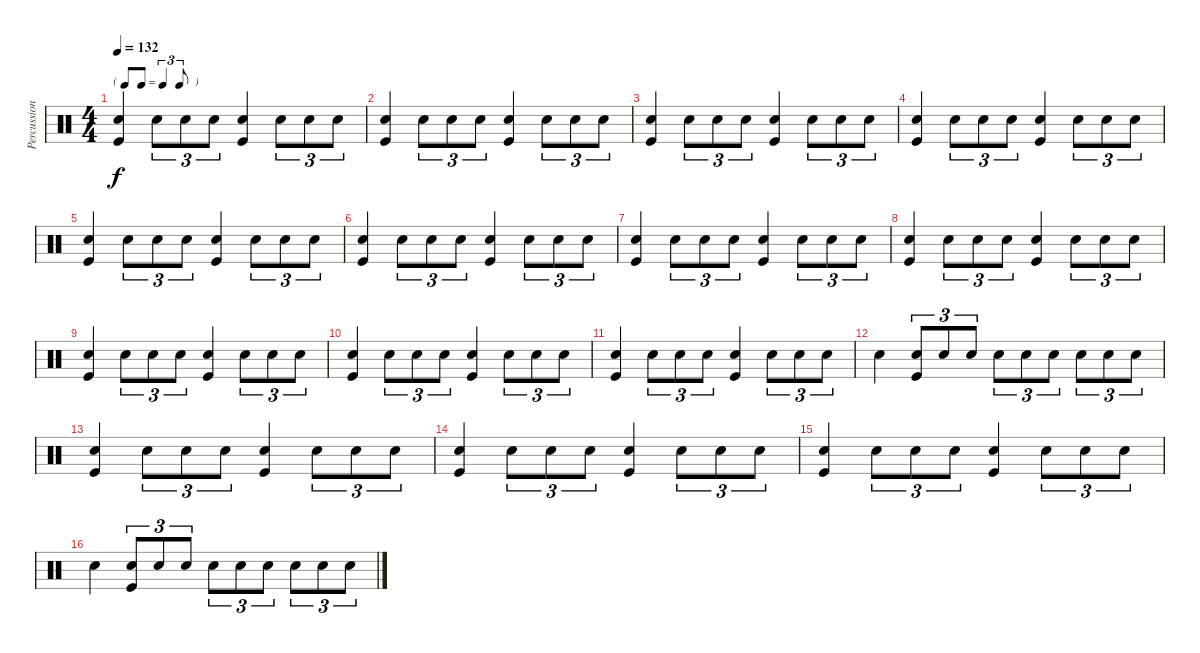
\track ("Percussions" "Percussion") {instrument percussion}
\staff {score}
\articulation defaults
\ts (4 4)
\tf triplet8th
\tempo 132
\clef neutral
\ks c
("Snare (hit) 2" "Kick (hit)").4{dy f} "Snare (hit) 2".8{tu (3 2)} "Snare (hit) 2".8{tu (3 2)} "Snare (hit) 2".8{tu (3 2)} ("Snare (hit) 2" "Kick (hit)").4 "Snare (hit) 2".8{tu (3 2)} "Snare (hit) 2".8{tu (3 2)} "Snare (hit) 2".8{tu (3 2)} |
("Snare (hit) 2" "Kick (hit)").4 "Snare (hit) 2".8{tu (3 2)} "Snare (hit) 2".8{tu (3 2)} "Snare (hit) 2".8{tu (3 2)} ("Snare (hit) 2" "Kick (hit)").4 "Snare (hit) 2".8{tu (3 2)} "Snare (hit) 2".8{tu (3 2)} "Snare (hit) 2".8{tu (3 2)} |
("Snare (hit) 2" "Kick (hit)").4 "Snare (hit) 2".8{tu (3 2)} "Snare (hit) 2".8{tu (3 2)} "Snare (hit) 2".8{tu (3 2)} ("Snare (hit) 2" "Kick (hit)").4 "Snare (hit) 2".8{tu (3 2)} "Snare (hit) 2".8{tu (3 2)} "Snare (hit) 2".8{tu (3 2)} |
("Snare (hit) 2" "Kick (hit)").4 "Snare (hit) 2".8{tu (3 2)} "Snare (hit) 2".8{tu (3 2)} "Snare (hit) 2".8{tu (3 2)} ("Snare (hit) 2" "Kick (hit)").4 "Snare (hit) 2".8{tu (3 2)} "Snare (hit) 2".8{tu (3 2)} "Snare (hit) 2".8{tu (3 2)} |
("Snare (hit) 2" "Kick (hit)").4 "Snare (hit) 2".8{tu (3 2)} "Snare (hit) 2".8{tu (3 2)} "Snare (hit) 2".8{tu (3 2)} ("Snare (hit) 2" "Kick (hit)").4 "Snare (hit) 2".8{tu (3 2)} "Snare (hit) 2".8{tu (3 2)} "Snare (hit) 2".8{tu (3 2)} |
("Snare (hit) 2" "Kick (hit)").4 "Snare (hit) 2".8{tu (3 2)} "Snare (hit) 2".8{tu (3 2)} "Snare (hit) 2".8{tu (3 2)} ("Snare (hit) 2" "Kick (hit)").4 "Snare (hit) 2".8{tu (3 2)} "Snare (hit) 2".8{tu (3 2)} "Snare (hit) 2".8{tu (3 2)} |
("Snare (hit) 2" "Kick (hit)").4 "Snare (hit) 2".8{tu (3 2)} "Snare (hit) 2".8{tu (3 2)} "Snare (hit) 2".8{tu (3 2)} ("Snare (hit) 2" "Kick (hit)").4 "Snare (hit) 2".8{tu (3 2)} "Snare (hit) 2".8{tu (3 2)} "Snare (hit) 2".8{tu (3 2)} |
("Snare (hit) 2" "Kick (hit)").4 "Snare (hit) 2".8{tu (3 2)} "Snare (hit) 2".8{tu (3 2)} "Snare (hit) 2".8{tu (3 2)} ("Snare (hit) 2" "Kick (hit)").4 "Snare (hit) 2".8{tu (3 2)} "Snare (hit) 2".8{tu (3 2)} "Snare (hit) 2".8{tu (3 2)} |
("Snare (hit) 2" "Kick (hit)").4 "Snare (hit) 2".8{tu (3 2)} "Snare (hit) 2".8{tu (3 2)} "Snare (hit) 2".8{tu (3 2)} ("Snare (hit) 2" "Kick (hit)").4 "Snare (hit) 2".8{tu (3 2)} "Snare (hit) 2".8{tu (3 2)} "Snare (hit) 2".8{tu (3 2)} |
("Snare (hit) 2" "Kick (hit)").4 "Snare (hit) 2".8{tu (3 2)} "Snare (hit) 2".8{tu (3 2)} "Snare (hit) 2".8{tu (3 2)} ("Snare (hit) 2" "Kick (hit)").4 "Snare (hit) 2".8{tu (3 2)} "Snare (hit) 2".8{tu (3 2)} "Snare (hit) 2".8{tu (3 2)} |
("Snare (hit) 2" "Kick (hit)").4 "Snare (hit) 2".8{tu (3 2)} "Snare (hit) 2".8{tu (3 2)} "Snare (hit) 2".8{tu (3 2)} ("Snare (hit) 2" "Kick (hit)").4 "Snare (hit) 2".8{tu (3 2)} "Snare (hit) 2".8{tu (3 2)} "Snare (hit) 2".8{tu (3 2)} |
"Snare (hit) 2".4 ("Snare (hit) 2" "Kick (hit)").8{tu (3 2)} "Snare (hit) 2".8{tu (3 2)} "Snare (hit) 2".8{tu (3 2)} "Snare (hit) 2".8{tu (3 2)} "Snare (hit) 2".8{tu (3 2)} "Snare (hit) 2".8{tu (3 2)} "Snare (hit) 2".8{tu (3 2)} "Snare (hit) 2".8{tu (3 2)} "Snare (hit) 2".8{tu (3 2)} |
("Snare (hit) 2" "Kick (hit)").4 "Snare (hit) 2".8{tu (3 2)} "Snare (hit) 2".8{tu (3 2)} "Snare (hit) 2".8{tu (3 2)} ("Snare (hit) 2" "Kick (hit)").4 "Snare (hit) 2".8{tu (3 2)} "Snare (hit) 2".8{tu (3 2)} "Snare (hit) 2".8{tu (3 2)} |
("Snare (hit) 2" "Kick (hit)").4 "Snare (hit) 2".8{tu (3 2)} "Snare (hit) 2".8{tu (3 2)} "Snare (hit) 2".8{tu (3 2)} ("Snare (hit) 2" "Kick (hit)").4 "Snare (hit) 2".8{tu (3 2)} "Snare (hit) 2".8{tu (3 2)} "Snare (hit) 2".8{tu (3 2)} |
("Snare (hit) 2" "Kick (hit)").4 "Snare (hit) 2".8{tu (3 2)} "Snare (hit) 2".8{tu (3 2)} "Snare (hit) 2".8{tu (3 2)} ("Snare (hit) 2" "Kick (hit)").4 "Snare (hit) 2".8{tu (3 2)} "Snare (hit) 2".8{tu (3 2)} "Snare (hit) 2".8{tu (3 2)} |
"Snare (hit) 2".4 ("Snare (hit) 2" "Kick (hit)").8{tu (3 2)} "Snare (hit) 2".8{tu (3 2)} "Snare (hit) 2".8{tu (3 2)} "Snare (hit) 2".8{tu (3 2)} "Snare (hit) 2".8{tu (3 2)} "Snare (hit) 2".8{tu (3 2)} "Snare (hit) 2".8{tu (3 2)} "Snare (hit) 2".8{tu (3 2)} "Snare (hit) 2".8{tu (3 2)}
